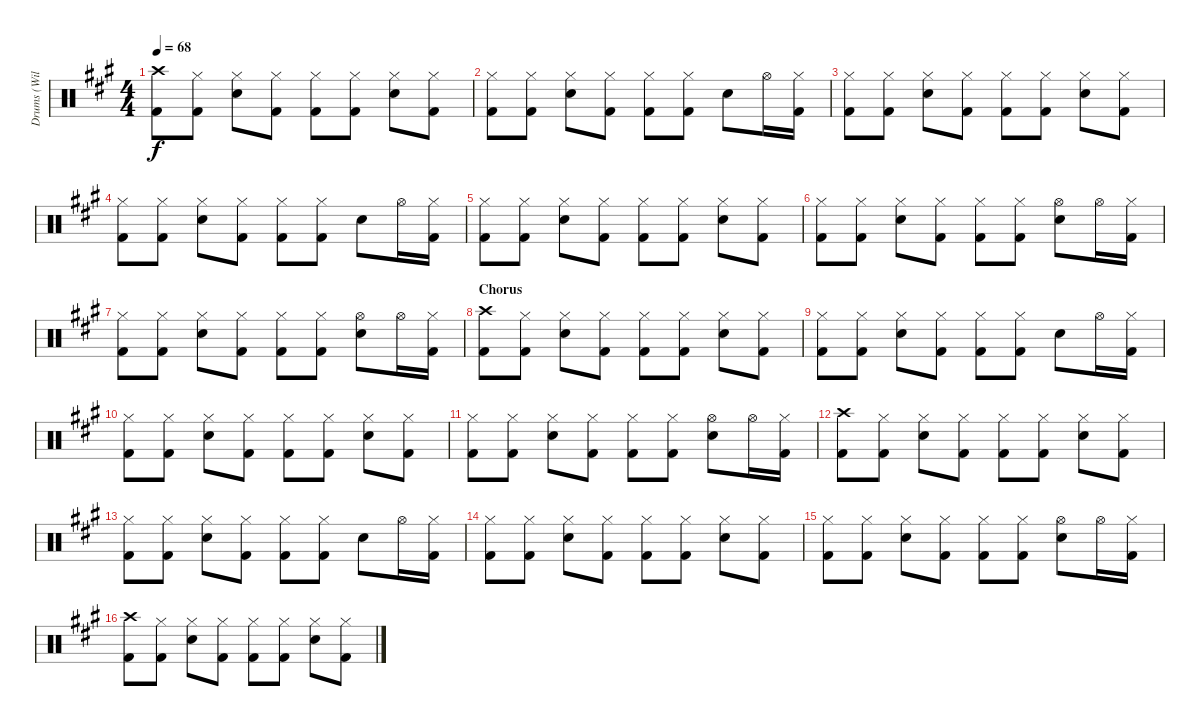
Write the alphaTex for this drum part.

\track ("Drums (Will Champion)" "Drums (Wil") {instrument percussion}
\staff {score}
\articulation defaults
\ts (4 4)
\tempo 68
\clef neutral
\ks a
("Kick (hit) 2" "Crash high (hit)").8{dy f} ("Kick (hit) 2" "Hi-Hat (closed)").8 ("Snare (hit) 2" "Hi-Hat (closed)").8 ("Kick (hit) 2" "Hi-Hat (closed)").8 ("Kick (hit) 2" "Hi-Hat (closed)").8 ("Kick (hit) 2" "Hi-Hat (closed)").8 ("Snare (hit) 2" "Hi-Hat (closed)").8 ("Kick (hit) 2" "Hi-Hat (closed)").8 |
("Kick (hit) 2" "Hi-Hat (closed)").8 ("Kick (hit) 2" "Hi-Hat (closed)").8 ("Snare (hit) 2" "Hi-Hat (closed)").8 ("Kick (hit) 2" "Hi-Hat (closed)").8 ("Kick (hit) 2" "Hi-Hat (closed)").8 ("Kick (hit) 2" "Hi-Hat (closed)").8 "Snare (hit) 2".8 "Hi-Hat (open)".16 ("Hi-Hat (closed)" "Kick (hit) 2").16 |
("Kick (hit) 2" "Hi-Hat (closed)").8 ("Kick (hit) 2" "Hi-Hat (closed)").8 ("Snare (hit) 2" "Hi-Hat (closed)").8 ("Kick (hit) 2" "Hi-Hat (closed)").8 ("Kick (hit) 2" "Hi-Hat (closed)").8 ("Kick (hit) 2" "Hi-Hat (closed)").8 ("Snare (hit) 2" "Hi-Hat (closed)").8 ("Kick (hit) 2" "Hi-Hat (closed)").8 |
("Kick (hit) 2" "Hi-Hat (closed)").8 ("Kick (hit) 2" "Hi-Hat (closed)").8 ("Snare (hit) 2" "Hi-Hat (closed)").8 ("Kick (hit) 2" "Hi-Hat (closed)").8 ("Kick (hit) 2" "Hi-Hat (closed)").8 ("Kick (hit) 2" "Hi-Hat (closed)").8 "Snare (hit) 2".8 "Hi-Hat (open)".16 ("Hi-Hat (closed)" "Kick (hit) 2").16 |
("Kick (hit) 2" "Hi-Hat (closed)").8 ("Kick (hit) 2" "Hi-Hat (closed)").8 ("Snare (hit) 2" "Hi-Hat (closed)").8 ("Kick (hit) 2" "Hi-Hat (closed)").8 ("Kick (hit) 2" "Hi-Hat (closed)").8 ("Kick (hit) 2" "Hi-Hat (closed)").8 ("Snare (hit) 2" "Hi-Hat (closed)").8 ("Kick (hit) 2" "Hi-Hat (closed)").8 |
("Kick (hit) 2" "Hi-Hat (closed)").8 ("Kick (hit) 2" "Hi-Hat (closed)").8 ("Snare (hit) 2" "Hi-Hat (closed)").8 ("Kick (hit) 2" "Hi-Hat (closed)").8 ("Kick (hit) 2" "Hi-Hat (closed)").8 ("Kick (hit) 2" "Hi-Hat (closed)").8 ("Hi-Hat (open)" "Snare (hit) 2").8 "Hi-Hat (open)".16 ("Hi-Hat (closed)" "Kick (hit) 2").16 |
("Kick (hit) 2" "Hi-Hat (closed)").8 ("Kick (hit) 2" "Hi-Hat (closed)").8 ("Snare (hit) 2" "Hi-Hat (closed)").8 ("Kick (hit) 2" "Hi-Hat (closed)").8 ("Kick (hit) 2" "Hi-Hat (closed)").8 ("Kick (hit) 2" "Hi-Hat (closed)").8 ("Hi-Hat (open)" "Snare (hit) 2").8 "Hi-Hat (open)".16 ("Hi-Hat (closed)" "Kick (hit) 2").16 |
\section ("" "Chorus")
("Kick (hit) 2" "Crash high (hit)").8 ("Kick (hit) 2" "Hi-Hat (closed)").8 ("Snare (hit) 2" "Hi-Hat (closed)").8 ("Kick (hit) 2" "Hi-Hat (closed)").8 ("Kick (hit) 2" "Hi-Hat (closed)").8 ("Kick (hit) 2" "Hi-Hat (closed)").8 ("Snare (hit) 2" "Hi-Hat (closed)").8 ("Kick (hit) 2" "Hi-Hat (closed)").8 |
("Kick (hit) 2" "Hi-Hat (closed)").8 ("Kick (hit) 2" "Hi-Hat (closed)").8 ("Snare (hit) 2" "Hi-Hat (closed)").8 ("Kick (hit) 2" "Hi-Hat (closed)").8 ("Kick (hit) 2" "Hi-Hat (closed)").8 ("Kick (hit) 2" "Hi-Hat (closed)").8 "Snare (hit) 2".8 "Hi-Hat (open)".16 ("Hi-Hat (closed)" "Kick (hit) 2").16 |
("Kick (hit) 2" "Hi-Hat (closed)").8 ("Kick (hit) 2" "Hi-Hat (closed)").8 ("Snare (hit) 2" "Hi-Hat (closed)").8 ("Kick (hit) 2" "Hi-Hat (closed)").8 ("Kick (hit) 2" "Hi-Hat (closed)").8 ("Kick (hit) 2" "Hi-Hat (closed)").8 ("Snare (hit) 2" "Hi-Hat (closed)").8 ("Kick (hit) 2" "Hi-Hat (closed)").8 |
("Kick (hit) 2" "Hi-Hat (closed)").8 ("Kick (hit) 2" "Hi-Hat (closed)").8 ("Snare (hit) 2" "Hi-Hat (closed)").8 ("Kick (hit) 2" "Hi-Hat (closed)").8 ("Kick (hit) 2" "Hi-Hat (closed)").8 ("Kick (hit) 2" "Hi-Hat (closed)").8 ("Hi-Hat (open)" "Snare (hit) 2").8 "Hi-Hat (open)".16 ("Hi-Hat (closed)" "Kick (hit) 2").16 |
("Kick (hit) 2" "Crash high (hit)").8 ("Kick (hit) 2" "Hi-Hat (closed)").8 ("Snare (hit) 2" "Hi-Hat (closed)").8 ("Kick (hit) 2" "Hi-Hat (closed)").8 ("Kick (hit) 2" "Hi-Hat (closed)").8 ("Kick (hit) 2" "Hi-Hat (closed)").8 ("Snare (hit) 2" "Hi-Hat (closed)").8 ("Kick (hit) 2" "Hi-Hat (closed)").8 |
("Kick (hit) 2" "Hi-Hat (closed)").8 ("Kick (hit) 2" "Hi-Hat (closed)").8 ("Snare (hit) 2" "Hi-Hat (closed)").8 ("Kick (hit) 2" "Hi-Hat (closed)").8 ("Kick (hit) 2" "Hi-Hat (closed)").8 ("Kick (hit) 2" "Hi-Hat (closed)").8 "Snare (hit) 2".8 "Hi-Hat (open)".16 ("Hi-Hat (closed)" "Kick (hit) 2").16 |
("Kick (hit) 2" "Hi-Hat (closed)").8 ("Kick (hit) 2" "Hi-Hat (closed)").8 ("Snare (hit) 2" "Hi-Hat (closed)").8 ("Kick (hit) 2" "Hi-Hat (closed)").8 ("Kick (hit) 2" "Hi-Hat (closed)").8 ("Kick (hit) 2" "Hi-Hat (closed)").8 ("Snare (hit) 2" "Hi-Hat (closed)").8 ("Kick (hit) 2" "Hi-Hat (closed)").8 |
("Kick (hit) 2" "Hi-Hat (closed)").8 ("Kick (hit) 2" "Hi-Hat (closed)").8 ("Snare (hit) 2" "Hi-Hat (closed)").8 ("Kick (hit) 2" "Hi-Hat (closed)").8 ("Kick (hit) 2" "Hi-Hat (closed)").8 ("Kick (hit) 2" "Hi-Hat (closed)").8 ("Hi-Hat (open)" "Snare (hit) 2").8 "Hi-Hat (open)".16 ("Hi-Hat (closed)" "Kick (hit) 2").16 |
("Kick (hit) 2" "Crash high (hit)").8 ("Kick (hit) 2" "Hi-Hat (closed)").8 ("Snare (hit) 2" "Hi-Hat (closed)").8 ("Kick (hit) 2" "Hi-Hat (closed)").8 ("Kick (hit) 2" "Hi-Hat (closed)").8 ("Kick (hit) 2" "Hi-Hat (closed)").8 ("Snare (hit) 2" "Hi-Hat (closed)").8 ("Kick (hit) 2" "Hi-Hat (closed)").8
